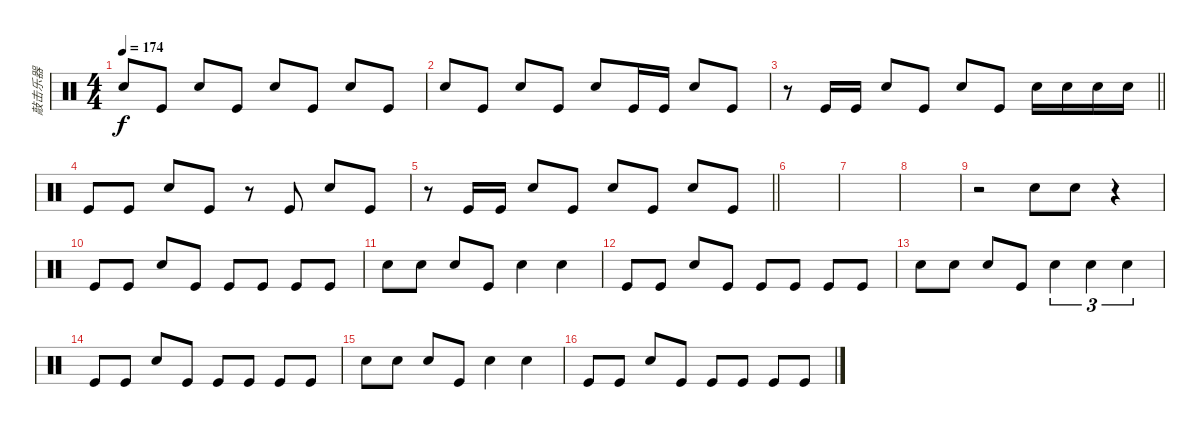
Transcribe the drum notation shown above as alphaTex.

\track ("敲击乐器" "敲击乐器") {instrument percussion}
\staff {score}
\articulation defaults
\ts (4 4)
\tempo 174
\clef neutral
\ks c "Snare (hit) 2".8{dy f} "Kick (hit)".8 "Snare (hit) 2".8 "Kick (hit)".8 "Snare (hit) 2".8 "Kick (hit)".8 "Snare (hit) 2".8 "Kick (hit)".8
|
"Snare (hit) 2".8 "Kick (hit)".8 "Snare (hit) 2".8 "Kick (hit)".8 "Snare (hit) 2".8 "Kick (hit)".16 "Kick (hit)".16 "Snare (hit) 2".8 "Kick (hit)".8 |
\barLineRight lightlight
r.8 "Kick (hit)".16 "Kick (hit)".16 "Snare (hit) 2".8 "Kick (hit)".8 "Snare (hit) 2".8 "Kick (hit)".8 "Snare (hit) 2".16 "Snare (hit) 2".16 "Snare (hit) 2".16 "Snare (hit) 2".16 |
"Kick (hit)".8 "Kick (hit)".8 "Snare (hit) 2".8 "Kick (hit)".8 r.8 "Kick (hit)".8 "Snare (hit) 2".8 "Kick (hit)".8 |
\barLineRight lightlight
r.8 "Kick (hit)".16 "Kick (hit)".16 "Snare (hit) 2".8 "Kick (hit)".8 "Snare (hit) 2".8 "Kick (hit)".8 "Snare (hit) 2".8 "Kick (hit)".8 |
|
|
|
r.2 "Snare (hit) 2".8 "Snare (hit) 2".8 r.4 |
"Kick (hit)".8 "Kick (hit)".8 "Snare (hit) 2".8 "Kick (hit)".8 "Kick (hit)".8 "Kick (hit)".8 "Kick (hit)".8 "Kick (hit)".8 |
"Snare (hit) 2".8 "Snare (hit) 2".8 "Snare (hit) 2".8 "Kick (hit)".8 "Snare (hit) 2".4 "Snare (hit) 2".4 |
"Kick (hit)".8 "Kick (hit)".8 "Snare (hit) 2".8 "Kick (hit)".8 "Kick (hit)".8 "Kick (hit)".8 "Kick (hit)".8 "Kick (hit)".8 |
"Snare (hit) 2".8 "Snare (hit) 2".8 "Snare (hit) 2".8 "Kick (hit)".8 "Snare (hit) 2".4{tu (3 2)} "Snare (hit) 2".4{tu (3 2)} "Snare (hit) 2".4{tu (3 2)} |
"Kick (hit)".8 "Kick (hit)".8 "Snare (hit) 2".8 "Kick (hit)".8 "Kick (hit)".8 "Kick (hit)".8 "Kick (hit)".8 "Kick (hit)".8 |
"Snare (hit) 2".8 "Snare (hit) 2".8 "Snare (hit) 2".8 "Kick (hit)".8 "Snare (hit) 2".4 "Snare (hit) 2".4 |
"Kick (hit)".8 "Kick (hit)".8 "Snare (hit) 2".8 "Kick (hit)".8 "Kick (hit)".8 "Kick (hit)".8 "Kick (hit)".8 "Kick (hit)".8
